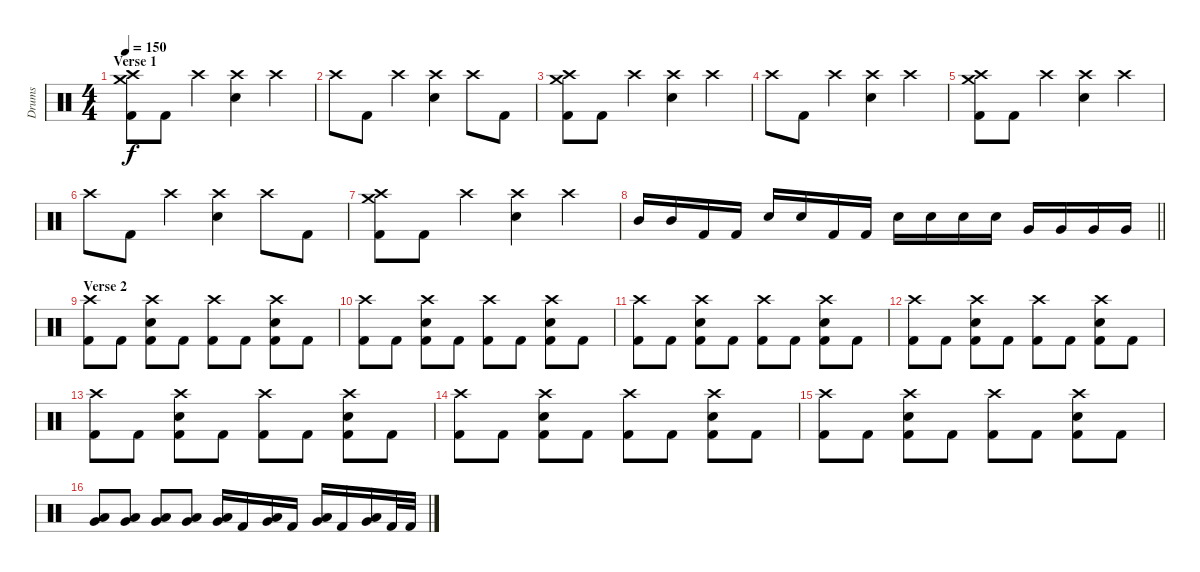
\track ("Drums" "Drums") {instrument percussion}
\staff {score}
\articulation defaults
\ts (4 4)
\section ("" "Verse 1")
\tempo 150
\clef neutral
\ks c
("Crash high (hit)" "Crash medium (hit)" "Kick (hit) 2").8{dy f} "Kick (hit) 2".8 "Crash high (hit)".4 ("Crash high (hit)" "Snare (hit) 2").4 "Crash high (hit)".4 |
"Crash high (hit)".8 "Kick (hit) 2".8 "Crash high (hit)".4 ("Crash high (hit)" "Snare (hit) 2").4 "Crash high (hit)".8 "Kick (hit) 2".8 |
("Crash high (hit)" "Crash medium (hit)" "Kick (hit) 2").8 "Kick (hit) 2".8 "Crash high (hit)".4 ("Crash high (hit)" "Snare (hit) 2").4 "Crash high (hit)".4 |
"Crash high (hit)".8 "Kick (hit) 2".8 "Crash high (hit)".4 ("Crash high (hit)" "Snare (hit) 2").4 "Crash high (hit)".4 |
("Crash high (hit)" "Crash medium (hit)" "Kick (hit) 2").8 "Kick (hit) 2".8 "Crash high (hit)".4 ("Crash high (hit)" "Snare (hit) 2").4 "Crash high (hit)".4 |
"Crash high (hit)".8 "Kick (hit) 2".8 "Crash high (hit)".4 ("Crash high (hit)" "Snare (hit) 2").4 "Crash high (hit)".8 "Kick (hit) 2".8 |
("Crash high (hit)" "Crash medium (hit)" "Kick (hit) 2").8 "Kick (hit) 2".8 "Crash high (hit)".4 ("Crash high (hit)" "Snare (hit) 2").4 "Crash high (hit)".4 |
\barLineRight lightlight "Mid Tom (hit)".16 "Mid Tom (hit)".16 "Kick (hit) 2".16 "Kick (hit) 2".16 "Snare (hit) 2".16 "Snare (hit) 2".16 "Kick (hit) 2".16 "Kick (hit) 2".16 "Snare (hit) 2".16 "Snare (hit) 2".16 "Snare (hit) 2".16 "Snare (hit) 2".16 "Very Low Tom (hit)".16 "Very Low Tom (hit)".16 "Very Low Tom (hit)".16 "Very Low Tom (hit)".16
|
\section ("" "Verse 2")
("Crash high (hit)" "Kick (hit) 2").8 "Kick (hit) 2".8 ("Crash high (hit)" "Snare (hit) 2" "Kick (hit) 2").8 "Kick (hit) 2".8 ("Crash high (hit)" "Kick (hit) 2").8 "Kick (hit) 2".8 ("Crash high (hit)" "Snare (hit) 2" "Kick (hit) 2").8 "Kick (hit) 2".8 |
("Crash high (hit)" "Kick (hit) 2").8 "Kick (hit) 2".8 ("Crash high (hit)" "Snare (hit) 2" "Kick (hit) 2").8 "Kick (hit) 2".8 ("Crash high (hit)" "Kick (hit) 2").8 "Kick (hit) 2".8 ("Crash high (hit)" "Snare (hit) 2" "Kick (hit) 2").8 "Kick (hit) 2".8 |
("Crash high (hit)" "Kick (hit) 2").8 "Kick (hit) 2".8 ("Crash high (hit)" "Snare (hit) 2" "Kick (hit) 2").8 "Kick (hit) 2".8 ("Crash high (hit)" "Kick (hit) 2").8 "Kick (hit) 2".8 ("Crash high (hit)" "Snare (hit) 2" "Kick (hit) 2").8 "Kick (hit) 2".8 |
("Crash high (hit)" "Kick (hit) 2").8 "Kick (hit) 2".8 ("Crash high (hit)" "Snare (hit) 2" "Kick (hit) 2").8 "Kick (hit) 2".8 ("Crash high (hit)" "Kick (hit) 2").8 "Kick (hit) 2".8 ("Crash high (hit)" "Snare (hit) 2" "Kick (hit) 2").8 "Kick (hit) 2".8 |
("Crash high (hit)" "Kick (hit) 2").8 "Kick (hit) 2".8 ("Crash high (hit)" "Snare (hit) 2" "Kick (hit) 2").8 "Kick (hit) 2".8 ("Crash high (hit)" "Kick (hit) 2").8 "Kick (hit) 2".8 ("Crash high (hit)" "Snare (hit) 2" "Kick (hit) 2").8 "Kick (hit) 2".8 |
("Crash high (hit)" "Kick (hit) 2").8 "Kick (hit) 2".8 ("Crash high (hit)" "Snare (hit) 2" "Kick (hit) 2").8 "Kick (hit) 2".8 ("Crash high (hit)" "Kick (hit) 2").8 "Kick (hit) 2".8 ("Crash high (hit)" "Snare (hit) 2" "Kick (hit) 2").8 "Kick (hit) 2".8 |
("Crash high (hit)" "Kick (hit) 2").8 "Kick (hit) 2".8 ("Crash high (hit)" "Snare (hit) 2" "Kick (hit) 2").8 "Kick (hit) 2".8 ("Crash high (hit)" "Kick (hit) 2").8 "Kick (hit) 2".8 ("Crash high (hit)" "Snare (hit) 2" "Kick (hit) 2").8 "Kick (hit) 2".8 |
("Low Tom (hit)" "Very Low Tom (hit)").8 ("Low Tom (hit)" "Very Low Tom (hit)").8 ("Low Tom (hit)" "Very Low Tom (hit)").8 ("Low Tom (hit)" "Very Low Tom (hit)").8 ("Low Tom (hit)" "Very Low Tom (hit)").16 "Kick (hit) 2".16 ("Low Tom (hit)" "Very Low Tom (hit)").16 "Kick (hit) 2".16 ("Low Tom (hit)" "Very Low Tom (hit)").16 "Kick (hit) 2".16 ("Low Tom (hit)" "Very Low Tom (hit)").16 "Kick (hit) 2".32 "Kick (hit) 2".32
